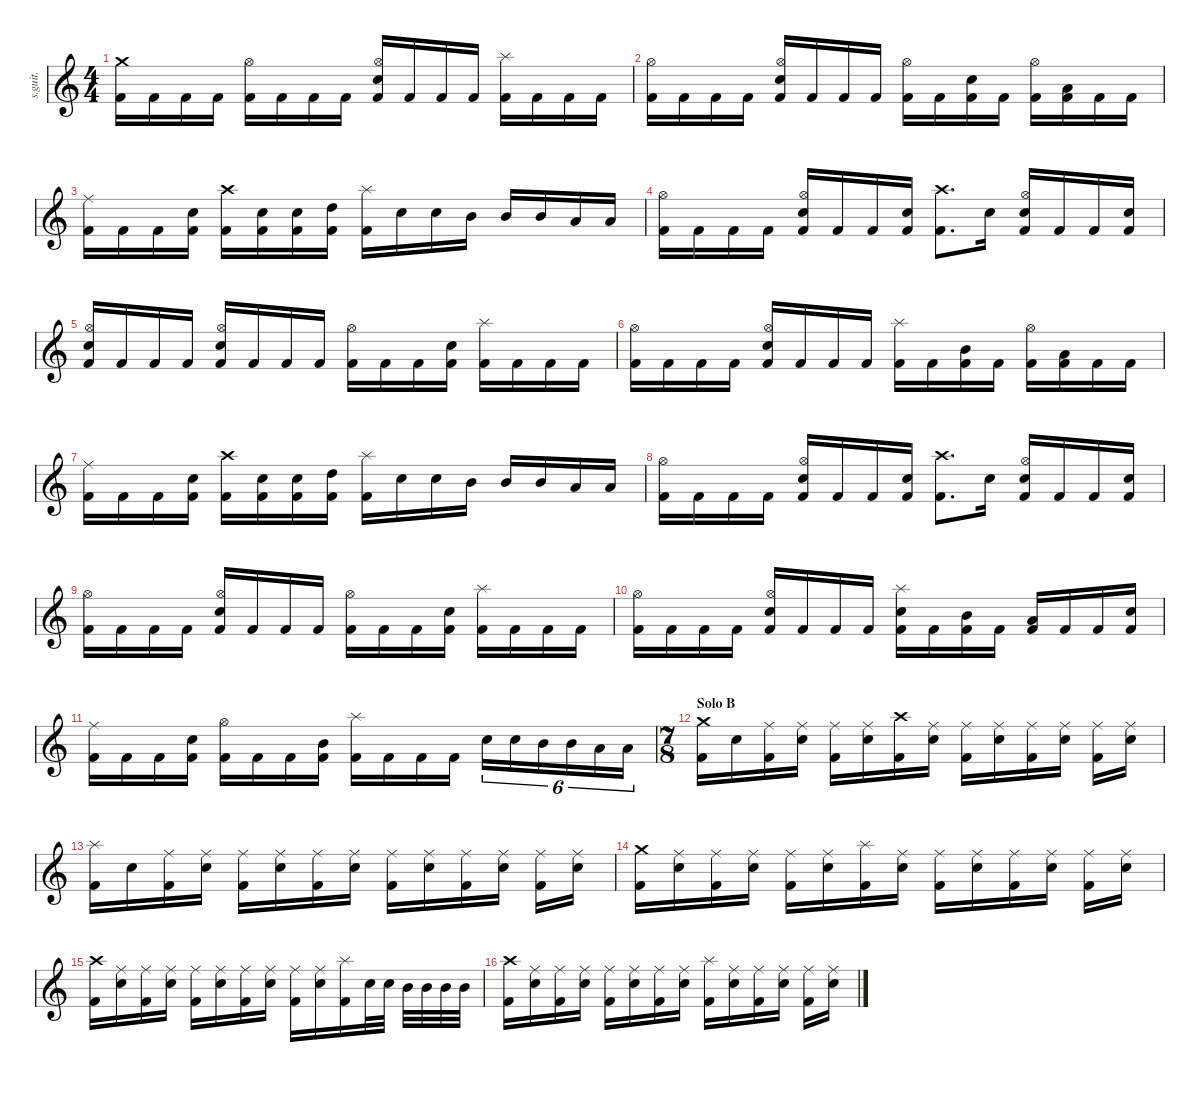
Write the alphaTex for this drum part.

\defaultSystemsLayout 4
\hideDynamics
\bracketExtendMode nobrackets
\track ("Percussion" "s.guit.") {instrument percussion}
\staff {score}
\articulation defaults
\ts (4 4)
\tempo (120 hide)
\clef g2
\ks c
("Crash medium (hit)" "Kick (hit) 2").16{lyrics (0 "") lyrics (1 "") lyrics (2 "") lyrics (3 "") lyrics (4 "") dy f} "Kick (hit) 2".16{lyrics (0 "") lyrics (1 "") lyrics (2 "") lyrics (3 "") lyrics (4 "")} "Kick (hit) 2".16{lyrics (0 "") lyrics (1 "") lyrics (2 "") lyrics (3 "") lyrics (4 "")} "Kick (hit) 2".16{lyrics (0 "") lyrics (1 "") lyrics (2 "") lyrics (3 "") lyrics (4 "")} ("Kick (hit) 2" "Hi-Hat (open)").16{lyrics (0 "") lyrics (1 "") lyrics (2 "") lyrics (3 "") lyrics (4 "")} "Kick (hit) 2".16{lyrics (0 "") lyrics (1 "") lyrics (2 "") lyrics (3 "") lyrics (4 "")} "Kick (hit) 2".16{lyrics (0 "") lyrics (1 "") lyrics (2 "") lyrics (3 "") lyrics (4 "")} "Kick (hit) 2".16{lyrics (0 "") lyrics (1 "") lyrics (2 "") lyrics (3 "") lyrics (4 "")} ("Hi-Hat (open)" "Kick (hit) 2" "Snare (hit) 2").16{lyrics (0 "") lyrics (1 "") lyrics (2 "") lyrics (3 "") lyrics (4 "")} "Kick (hit) 2".16{lyrics (0 "") lyrics (1 "") lyrics (2 "") lyrics (3 "") lyrics (4 "")} "Kick (hit) 2".16{lyrics (0 "") lyrics (1 "") lyrics (2 "") lyrics (3 "") lyrics (4 "")} "Kick (hit) 2".16{lyrics (0 "") lyrics (1 "") lyrics (2 "") lyrics (3 "") lyrics (4 "")} ("Splash (hit)" "Kick (hit) 2").16{lyrics (0 "") lyrics (1 "") lyrics (2 "") lyrics (3 "") lyrics (4 "")} "Kick (hit) 2".16{lyrics (0 "") lyrics (1 "") lyrics (2 "") lyrics (3 "") lyrics (4 "")} "Kick (hit) 2".16{lyrics (0 "") lyrics (1 "") lyrics (2 "") lyrics (3 "") lyrics (4 "")} "Kick (hit) 2".16{lyrics (0 "") lyrics (1 "") lyrics (2 "") lyrics (3 "") lyrics (4 "")} |
("Kick (hit) 2" "Hi-Hat (open)").16{lyrics (0 "") lyrics (1 "") lyrics (2 "") lyrics (3 "") lyrics (4 "")} "Kick (hit) 2".16{lyrics (0 "") lyrics (1 "") lyrics (2 "") lyrics (3 "") lyrics (4 "")} "Kick (hit) 2".16{lyrics (0 "") lyrics (1 "") lyrics (2 "") lyrics (3 "") lyrics (4 "")} "Kick (hit) 2".16{lyrics (0 "") lyrics (1 "") lyrics (2 "") lyrics (3 "") lyrics (4 "")} ("Hi-Hat (open)" "Snare (hit) 2" "Kick (hit) 2").16{lyrics (0 "") lyrics (1 "") lyrics (2 "") lyrics (3 "") lyrics (4 "")} "Kick (hit) 2".16{lyrics (0 "") lyrics (1 "") lyrics (2 "") lyrics (3 "") lyrics (4 "")} "Kick (hit) 2".16{lyrics (0 "") lyrics (1 "") lyrics (2 "") lyrics (3 "") lyrics (4 "")} "Kick (hit) 2".16{lyrics (0 "") lyrics (1 "") lyrics (2 "") lyrics (3 "") lyrics (4 "")} ("Hi-Hat (open)" "Kick (hit) 2").16{lyrics (0 "") lyrics (1 "") lyrics (2 "") lyrics (3 "") lyrics (4 "")} "Kick (hit) 2".16{lyrics (0 "") lyrics (1 "") lyrics (2 "") lyrics (3 "") lyrics (4 "")} ("Snare (hit) 2" "Kick (hit) 2").16{lyrics (0 "") lyrics (1 "") lyrics (2 "") lyrics (3 "") lyrics (4 "")} "Kick (hit) 2".16{lyrics (0 "") lyrics (1 "") lyrics (2 "") lyrics (3 "") lyrics (4 "")} ("Hi-Hat (open)" "Kick (hit) 2").16{lyrics (0 "") lyrics (1 "") lyrics (2 "") lyrics (3 "") lyrics (4 "")} ("Low Floor Tom (hit)" "Kick (hit) 2").16{lyrics (0 "") lyrics (1 "") lyrics (2 "") lyrics (3 "") lyrics (4 "")} "Kick (hit) 2".16{lyrics (0 "") lyrics (1 "") lyrics (2 "") lyrics (3 "") lyrics (4 "")} "Kick (hit) 2".16{lyrics (0 "") lyrics (1 "") lyrics (2 "") lyrics (3 "") lyrics (4 "")} |
("Ride (middle)" "Kick (hit) 2").16{lyrics (0 "") lyrics (1 "") lyrics (2 "") lyrics (3 "") lyrics (4 "")} "Kick (hit) 2".16{lyrics (0 "") lyrics (1 "") lyrics (2 "") lyrics (3 "") lyrics (4 "")} "Kick (hit) 2".16{lyrics (0 "") lyrics (1 "") lyrics (2 "") lyrics (3 "") lyrics (4 "")} ("Snare (hit) 2" "Kick (hit) 2").16{lyrics (0 "") lyrics (1 "") lyrics (2 "") lyrics (3 "") lyrics (4 "")} ("Kick (hit) 2" "Crash high (hit)").16{lyrics (0 "") lyrics (1 "") lyrics (2 "") lyrics (3 "") lyrics (4 "")} ("Snare (hit) 2" "Kick (hit) 2").16{lyrics (0 "") lyrics (1 "") lyrics (2 "") lyrics (3 "") lyrics (4 "")} ("Snare (hit) 2" "Kick (hit) 2").16{lyrics (0 "") lyrics (1 "") lyrics (2 "") lyrics (3 "") lyrics (4 "")} ("High Tom (hit)" "Kick (hit) 2").16{lyrics (0 "") lyrics (1 "") lyrics (2 "") lyrics (3 "") lyrics (4 "")} ("Splash (hit)" "Kick (hit) 2").16{lyrics (0 "") lyrics (1 "") lyrics (2 "") lyrics (3 "") lyrics (4 "")} "Snare (hit) 2".16{lyrics (0 "") lyrics (1 "") lyrics (2 "") lyrics (3 "") lyrics (4 "")} "Snare (hit) 2".16{lyrics (0 "") lyrics (1 "") lyrics (2 "") lyrics (3 "") lyrics (4 "") dy ff} "Mid Tom (hit)".16{lyrics (0 "") lyrics (1 "") lyrics (2 "") lyrics (3 "") lyrics (4 "")} "Mid Tom (hit)".16{lyrics (0 "") lyrics (1 "") lyrics (2 "") lyrics (3 "") lyrics (4 "") dy f} "Mid Tom (hit)".16{lyrics (0 "") lyrics (1 "") lyrics (2 "") lyrics (3 "") lyrics (4 "")} "Low Tom (hit)".16{lyrics (0 "") lyrics (1 "") lyrics (2 "") lyrics (3 "") lyrics (4 "") dy ff} "Low Tom (hit)".16{lyrics (0 "") lyrics (1 "") lyrics (2 "") lyrics (3 "") lyrics (4 "")} |
("Kick (hit) 2" "Hi-Hat (open)").16{lyrics (0 "") lyrics (1 "") lyrics (2 "") lyrics (3 "") lyrics (4 "") dy f} "Kick (hit) 2".16{lyrics (0 "") lyrics (1 "") lyrics (2 "") lyrics (3 "") lyrics (4 "")} "Kick (hit) 2".16{lyrics (0 "") lyrics (1 "") lyrics (2 "") lyrics (3 "") lyrics (4 "")} "Kick (hit) 2".16{lyrics (0 "") lyrics (1 "") lyrics (2 "") lyrics (3 "") lyrics (4 "")} ("Snare (hit) 2" "Kick (hit) 2" "Hi-Hat (open)").16{lyrics (0 "") lyrics (1 "") lyrics (2 "") lyrics (3 "") lyrics (4 "")} "Kick (hit) 2".16{lyrics (0 "") lyrics (1 "") lyrics (2 "") lyrics (3 "") lyrics (4 "")} "Kick (hit) 2".16{lyrics (0 "") lyrics (1 "") lyrics (2 "") lyrics (3 "") lyrics (4 "")} ("Snare (hit) 2" "Kick (hit) 2").16{lyrics (0 "") lyrics (1 "") lyrics (2 "") lyrics (3 "") lyrics (4 "")} ("Crash high (hit)" "Kick (hit) 2").8{d lyrics (0 "") lyrics (1 "") lyrics (2 "") lyrics (3 "") lyrics (4 "")} "Snare (hit) 2".16{lyrics (0 "") lyrics (1 "") lyrics (2 "") lyrics (3 "") lyrics (4 "")} ("Snare (hit) 2" "Kick (hit) 2" "Hi-Hat (open)").16{lyrics (0 "") lyrics (1 "") lyrics (2 "") lyrics (3 "") lyrics (4 "")} "Kick (hit) 2".16{lyrics (0 "") lyrics (1 "") lyrics (2 "") lyrics (3 "") lyrics (4 "")} "Kick (hit) 2".16{lyrics (0 "") lyrics (1 "") lyrics (2 "") lyrics (3 "") lyrics (4 "")} ("Snare (hit) 2" "Kick (hit) 2").16{lyrics (0 "") lyrics (1 "") lyrics (2 "") lyrics (3 "") lyrics (4 "")} |
("Snare (hit) 2" "Kick (hit) 2" "Hi-Hat (open)").16{lyrics (0 "") lyrics (1 "") lyrics (2 "") lyrics (3 "") lyrics (4 "")} "Kick (hit) 2".16{lyrics (0 "") lyrics (1 "") lyrics (2 "") lyrics (3 "") lyrics (4 "")} "Kick (hit) 2".16{lyrics (0 "") lyrics (1 "") lyrics (2 "") lyrics (3 "") lyrics (4 "")} "Kick (hit) 2".16{lyrics (0 "") lyrics (1 "") lyrics (2 "") lyrics (3 "") lyrics (4 "")} ("Snare (hit) 2" "Kick (hit) 2" "Hi-Hat (open)").16{lyrics (0 "") lyrics (1 "") lyrics (2 "") lyrics (3 "") lyrics (4 "")} "Kick (hit) 2".16{lyrics (0 "") lyrics (1 "") lyrics (2 "") lyrics (3 "") lyrics (4 "")} "Kick (hit) 2".16{lyrics (0 "") lyrics (1 "") lyrics (2 "") lyrics (3 "") lyrics (4 "")} "Kick (hit) 2".16{lyrics (0 "") lyrics (1 "") lyrics (2 "") lyrics (3 "") lyrics (4 "")} ("Hi-Hat (open)" "Kick (hit) 2").16{lyrics (0 "") lyrics (1 "") lyrics (2 "") lyrics (3 "") lyrics (4 "")} "Kick (hit) 2".16{lyrics (0 "") lyrics (1 "") lyrics (2 "") lyrics (3 "") lyrics (4 "")} "Kick (hit) 2".16{lyrics (0 "") lyrics (1 "") lyrics (2 "") lyrics (3 "") lyrics (4 "")} ("Snare (hit) 2" "Kick (hit) 2").16{lyrics (0 "") lyrics (1 "") lyrics (2 "") lyrics (3 "") lyrics (4 "")} ("Splash (hit)" "Kick (hit) 2").16{lyrics (0 "") lyrics (1 "") lyrics (2 "") lyrics (3 "") lyrics (4 "")} "Kick (hit) 2".16{lyrics (0 "") lyrics (1 "") lyrics (2 "") lyrics (3 "") lyrics (4 "")} "Kick (hit) 2".16{lyrics (0 "") lyrics (1 "") lyrics (2 "") lyrics (3 "") lyrics (4 "")} "Kick (hit) 2".16{lyrics (0 "") lyrics (1 "") lyrics (2 "") lyrics (3 "") lyrics (4 "")} |
("Kick (hit) 2" "Hi-Hat (open)").16{lyrics (0 "") lyrics (1 "") lyrics (2 "") lyrics (3 "") lyrics (4 "")} "Kick (hit) 2".16{lyrics (0 "") lyrics (1 "") lyrics (2 "") lyrics (3 "") lyrics (4 "")} "Kick (hit) 2".16{lyrics (0 "") lyrics (1 "") lyrics (2 "") lyrics (3 "") lyrics (4 "")} "Kick (hit) 2".16{lyrics (0 "") lyrics (1 "") lyrics (2 "") lyrics (3 "") lyrics (4 "")} ("Hi-Hat (open)" "Snare (hit) 2" "Kick (hit) 2").16{lyrics (0 "") lyrics (1 "") lyrics (2 "") lyrics (3 "") lyrics (4 "")} "Kick (hit) 2".16{lyrics (0 "") lyrics (1 "") lyrics (2 "") lyrics (3 "") lyrics (4 "")} "Kick (hit) 2".16{lyrics (0 "") lyrics (1 "") lyrics (2 "") lyrics (3 "") lyrics (4 "")} "Kick (hit) 2".16{lyrics (0 "") lyrics (1 "") lyrics (2 "") lyrics (3 "") lyrics (4 "")} ("Splash (hit)" "Kick (hit) 2").16{lyrics (0 "") lyrics (1 "") lyrics (2 "") lyrics (3 "") lyrics (4 "")} "Kick (hit) 2".16{lyrics (0 "") lyrics (1 "") lyrics (2 "") lyrics (3 "") lyrics (4 "")} ("Mid Tom (hit)" "Kick (hit) 2").16{lyrics (0 "") lyrics (1 "") lyrics (2 "") lyrics (3 "") lyrics (4 "")} "Kick (hit) 2".16{lyrics (0 "") lyrics (1 "") lyrics (2 "") lyrics (3 "") lyrics (4 "")} ("Hi-Hat (open)" "Kick (hit) 2").16{lyrics (0 "") lyrics (1 "") lyrics (2 "") lyrics (3 "") lyrics (4 "")} ("Low Floor Tom (hit)" "Kick (hit) 2").16{lyrics (0 "") lyrics (1 "") lyrics (2 "") lyrics (3 "") lyrics (4 "")} "Kick (hit) 2".16{lyrics (0 "") lyrics (1 "") lyrics (2 "") lyrics (3 "") lyrics (4 "")} "Kick (hit) 2".16{lyrics (0 "") lyrics (1 "") lyrics (2 "") lyrics (3 "") lyrics (4 "")} |
("Ride (middle)" "Kick (hit) 2").16{lyrics (0 "") lyrics (1 "") lyrics (2 "") lyrics (3 "") lyrics (4 "")} "Kick (hit) 2".16{lyrics (0 "") lyrics (1 "") lyrics (2 "") lyrics (3 "") lyrics (4 "")} "Kick (hit) 2".16{lyrics (0 "") lyrics (1 "") lyrics (2 "") lyrics (3 "") lyrics (4 "")} ("Snare (hit) 2" "Kick (hit) 2").16{lyrics (0 "") lyrics (1 "") lyrics (2 "") lyrics (3 "") lyrics (4 "")} ("Kick (hit) 2" "Crash high (hit)").16{lyrics (0 "") lyrics (1 "") lyrics (2 "") lyrics (3 "") lyrics (4 "")} ("Snare (hit) 2" "Kick (hit) 2").16{lyrics (0 "") lyrics (1 "") lyrics (2 "") lyrics (3 "") lyrics (4 "")} ("Snare (hit) 2" "Kick (hit) 2").16{lyrics (0 "") lyrics (1 "") lyrics (2 "") lyrics (3 "") lyrics (4 "")} ("High Tom (hit)" "Kick (hit) 2").16{lyrics (0 "") lyrics (1 "") lyrics (2 "") lyrics (3 "") lyrics (4 "")} ("Splash (hit)" "Kick (hit) 2").16{lyrics (0 "") lyrics (1 "") lyrics (2 "") lyrics (3 "") lyrics (4 "")} "Snare (hit) 2".16{lyrics (0 "") lyrics (1 "") lyrics (2 "") lyrics (3 "") lyrics (4 "")} "Snare (hit) 2".16{lyrics (0 "") lyrics (1 "") lyrics (2 "") lyrics (3 "") lyrics (4 "") dy ff} "Mid Tom (hit)".16{lyrics (0 "") lyrics (1 "") lyrics (2 "") lyrics (3 "") lyrics (4 "")} "Mid Tom (hit)".16{lyrics (0 "") lyrics (1 "") lyrics (2 "") lyrics (3 "") lyrics (4 "") dy f} "Mid Tom (hit)".16{lyrics (0 "") lyrics (1 "") lyrics (2 "") lyrics (3 "") lyrics (4 "")} "Low Tom (hit)".16{lyrics (0 "") lyrics (1 "") lyrics (2 "") lyrics (3 "") lyrics (4 "") dy ff} "Low Tom (hit)".16{lyrics (0 "") lyrics (1 "") lyrics (2 "") lyrics (3 "") lyrics (4 "")} |
("Kick (hit) 2" "Hi-Hat (open)").16{lyrics (0 "") lyrics (1 "") lyrics (2 "") lyrics (3 "") lyrics (4 "") dy f} "Kick (hit) 2".16{lyrics (0 "") lyrics (1 "") lyrics (2 "") lyrics (3 "") lyrics (4 "")} "Kick (hit) 2".16{lyrics (0 "") lyrics (1 "") lyrics (2 "") lyrics (3 "") lyrics (4 "")} "Kick (hit) 2".16{lyrics (0 "") lyrics (1 "") lyrics (2 "") lyrics (3 "") lyrics (4 "")} ("Snare (hit) 2" "Kick (hit) 2" "Hi-Hat (open)").16{lyrics (0 "") lyrics (1 "") lyrics (2 "") lyrics (3 "") lyrics (4 "")} "Kick (hit) 2".16{lyrics (0 "") lyrics (1 "") lyrics (2 "") lyrics (3 "") lyrics (4 "")} "Kick (hit) 2".16{lyrics (0 "") lyrics (1 "") lyrics (2 "") lyrics (3 "") lyrics (4 "")} ("Snare (hit) 2" "Kick (hit) 2").16{lyrics (0 "") lyrics (1 "") lyrics (2 "") lyrics (3 "") lyrics (4 "")} ("Crash high (hit)" "Kick (hit) 2").8{d lyrics (0 "") lyrics (1 "") lyrics (2 "") lyrics (3 "") lyrics (4 "")} "Snare (hit) 2".16{lyrics (0 "") lyrics (1 "") lyrics (2 "") lyrics (3 "") lyrics (4 "")} ("Snare (hit) 2" "Kick (hit) 2" "Hi-Hat (open)").16{lyrics (0 "") lyrics (1 "") lyrics (2 "") lyrics (3 "") lyrics (4 "")} "Kick (hit) 2".16{lyrics (0 "") lyrics (1 "") lyrics (2 "") lyrics (3 "") lyrics (4 "")} "Kick (hit) 2".16{lyrics (0 "") lyrics (1 "") lyrics (2 "") lyrics (3 "") lyrics (4 "")} ("Snare (hit) 2" "Kick (hit) 2").16{lyrics (0 "") lyrics (1 "") lyrics (2 "") lyrics (3 "") lyrics (4 "")} |
("Kick (hit) 2" "Hi-Hat (open)").16{lyrics (0 "") lyrics (1 "") lyrics (2 "") lyrics (3 "") lyrics (4 "")} "Kick (hit) 2".16{lyrics (0 "") lyrics (1 "") lyrics (2 "") lyrics (3 "") lyrics (4 "")} "Kick (hit) 2".16{lyrics (0 "") lyrics (1 "") lyrics (2 "") lyrics (3 "") lyrics (4 "")} "Kick (hit) 2".16{lyrics (0 "") lyrics (1 "") lyrics (2 "") lyrics (3 "") lyrics (4 "")} ("Snare (hit) 2" "Kick (hit) 2" "Hi-Hat (open)").16{lyrics (0 "") lyrics (1 "") lyrics (2 "") lyrics (3 "") lyrics (4 "")} "Kick (hit) 2".16{lyrics (0 "") lyrics (1 "") lyrics (2 "") lyrics (3 "") lyrics (4 "")} "Kick (hit) 2".16{lyrics (0 "") lyrics (1 "") lyrics (2 "") lyrics (3 "") lyrics (4 "")} "Kick (hit) 2".16{lyrics (0 "") lyrics (1 "") lyrics (2 "") lyrics (3 "") lyrics (4 "")} ("Hi-Hat (open)" "Kick (hit) 2").16{lyrics (0 "") lyrics (1 "") lyrics (2 "") lyrics (3 "") lyrics (4 "")} "Kick (hit) 2".16{lyrics (0 "") lyrics (1 "") lyrics (2 "") lyrics (3 "") lyrics (4 "")} "Kick (hit) 2".16{lyrics (0 "") lyrics (1 "") lyrics (2 "") lyrics (3 "") lyrics (4 "")} ("Snare (hit) 2" "Kick (hit) 2").16{lyrics (0 "") lyrics (1 "") lyrics (2 "") lyrics (3 "") lyrics (4 "")} ("Splash (hit)" "Kick (hit) 2").16{lyrics (0 "") lyrics (1 "") lyrics (2 "") lyrics (3 "") lyrics (4 "")} "Kick (hit) 2".16{lyrics (0 "") lyrics (1 "") lyrics (2 "") lyrics (3 "") lyrics (4 "")} "Kick (hit) 2".16{lyrics (0 "") lyrics (1 "") lyrics (2 "") lyrics (3 "") lyrics (4 "")} "Kick (hit) 2".16{lyrics (0 "") lyrics (1 "") lyrics (2 "") lyrics (3 "") lyrics (4 "")} |
("Kick (hit) 2" "Hi-Hat (open)").16{lyrics (0 "") lyrics (1 "") lyrics (2 "") lyrics (3 "") lyrics (4 "")} "Kick (hit) 2".16{lyrics (0 "") lyrics (1 "") lyrics (2 "") lyrics (3 "") lyrics (4 "")} "Kick (hit) 2".16{lyrics (0 "") lyrics (1 "") lyrics (2 "") lyrics (3 "") lyrics (4 "")} "Kick (hit) 2".16{lyrics (0 "") lyrics (1 "") lyrics (2 "") lyrics (3 "") lyrics (4 "")} ("Hi-Hat (open)" "Snare (hit) 2" "Kick (hit) 2").16{lyrics (0 "") lyrics (1 "") lyrics (2 "") lyrics (3 "") lyrics (4 "")} "Kick (hit) 2".16{lyrics (0 "") lyrics (1 "") lyrics (2 "") lyrics (3 "") lyrics (4 "")} "Kick (hit) 2".16{lyrics (0 "") lyrics (1 "") lyrics (2 "") lyrics (3 "") lyrics (4 "")} "Kick (hit) 2".16{lyrics (0 "") lyrics (1 "") lyrics (2 "") lyrics (3 "") lyrics (4 "")} ("Splash (hit)" "Snare (hit) 2" "Kick (hit) 2").16{lyrics (0 "") lyrics (1 "") lyrics (2 "") lyrics (3 "") lyrics (4 "")} "Kick (hit) 2".16{lyrics (0 "") lyrics (1 "") lyrics (2 "") lyrics (3 "") lyrics (4 "")} ("Mid Tom (hit)" "Kick (hit) 2").16{lyrics (0 "") lyrics (1 "") lyrics (2 "") lyrics (3 "") lyrics (4 "")} "Kick (hit) 2".16{lyrics (0 "") lyrics (1 "") lyrics (2 "") lyrics (3 "") lyrics (4 "")} ("Low Floor Tom (hit)" "Kick (hit) 2").16{lyrics (0 "") lyrics (1 "") lyrics (2 "") lyrics (3 "") lyrics (4 "")} "Kick (hit) 2".16{lyrics (0 "") lyrics (1 "") lyrics (2 "") lyrics (3 "") lyrics (4 "")} "Kick (hit) 2".16{lyrics (0 "") lyrics (1 "") lyrics (2 "") lyrics (3 "") lyrics (4 "")} ("Snare (hit) 2" "Kick (hit) 2").16{lyrics (0 "") lyrics (1 "") lyrics (2 "") lyrics (3 "") lyrics (4 "")} |
("Ride (middle)" "Kick (hit) 2").16{lyrics (0 "") lyrics (1 "") lyrics (2 "") lyrics (3 "") lyrics (4 "")} "Kick (hit) 2".16{lyrics (0 "") lyrics (1 "") lyrics (2 "") lyrics (3 "") lyrics (4 "")} "Kick (hit) 2".16{lyrics (0 "") lyrics (1 "") lyrics (2 "") lyrics (3 "") lyrics (4 "")} ("Snare (hit) 2" "Kick (hit) 2").16{lyrics (0 "") lyrics (1 "") lyrics (2 "") lyrics (3 "") lyrics (4 "")} ("Hi-Hat (open)" "Kick (hit) 2").16{lyrics (0 "") lyrics (1 "") lyrics (2 "") lyrics (3 "") lyrics (4 "")} "Kick (hit) 2".16{lyrics (0 "") lyrics (1 "") lyrics (2 "") lyrics (3 "") lyrics (4 "")} "Kick (hit) 2".16{lyrics (0 "") lyrics (1 "") lyrics (2 "") lyrics (3 "") lyrics (4 "")} ("Mid Tom (hit)" "Kick (hit) 2").16{lyrics (0 "") lyrics (1 "") lyrics (2 "") lyrics (3 "") lyrics (4 "")} ("Splash (hit)" "Kick (hit) 2").16{lyrics (0 "") lyrics (1 "") lyrics (2 "") lyrics (3 "") lyrics (4 "")} "Kick (hit) 2".16{lyrics (0 "") lyrics (1 "") lyrics (2 "") lyrics (3 "") lyrics (4 "")} "Kick (hit) 2".16{lyrics (0 "") lyrics (1 "") lyrics (2 "") lyrics (3 "") lyrics (4 "")} "Kick (hit) 2".16{lyrics (0 "") lyrics (1 "") lyrics (2 "") lyrics (3 "") lyrics (4 "")} "Snare (hit) 2".16{tu (6 4) lyrics (0 "") lyrics (1 "") lyrics (2 "") lyrics (3 "") lyrics (4 "")} "Snare (hit) 2".16{tu (6 4) lyrics (0 "") lyrics (1 "") lyrics (2 "") lyrics (3 "") lyrics (4 "")} "Mid Tom (hit)".16{tu (6 4) lyrics (0 "") lyrics (1 "") lyrics (2 "") lyrics (3 "") lyrics (4 "")} "Mid Tom (hit)".16{tu (6 4) lyrics (0 "") lyrics (1 "") lyrics (2 "") lyrics (3 "") lyrics (4 "")} "Low Floor Tom (hit)".16{tu (6 4) lyrics (0 "") lyrics (1 "") lyrics (2 "") lyrics (3 "") lyrics (4 "")} "Low Floor Tom (hit)".16{tu (6 4) lyrics (0 "") lyrics (1 "") lyrics (2 "") lyrics (3 "") lyrics (4 "")} |
\ts (7 8)
\beaming (8 2 2 2 2)
\section ("" "Solo B")
("Crash medium (hit)" "Kick (hit) 2").16{lyrics (0 "") lyrics (1 "") lyrics (2 "") lyrics (3 "") lyrics (4 "")} "Snare (hit) 2".16{lyrics (0 "") lyrics (1 "") lyrics (2 "") lyrics (3 "") lyrics (4 "")} ("Ride (middle)" "Kick (hit) 2").16{lyrics (0 "") lyrics (1 "") lyrics (2 "") lyrics (3 "") lyrics (4 "")} ("Snare (hit) 2" "Ride (middle)").16{lyrics (0 "") lyrics (1 "") lyrics (2 "") lyrics (3 "") lyrics (4 "")} ("Ride (middle)" "Kick (hit) 2").16{lyrics (0 "") lyrics (1 "") lyrics (2 "") lyrics (3 "") lyrics (4 "")} ("Ride (middle)" "Snare (hit) 2").16{lyrics (0 "") lyrics (1 "") lyrics (2 "") lyrics (3 "") lyrics (4 "")} ("Crash high (hit)" "Kick (hit) 2").16{lyrics (0 "") lyrics (1 "") lyrics (2 "") lyrics (3 "") lyrics (4 "")} ("Ride (middle)" "Snare (hit) 2").16{lyrics (0 "") lyrics (1 "") lyrics (2 "") lyrics (3 "") lyrics (4 "")} ("Ride (middle)" "Kick (hit) 2").16{lyrics (0 "") lyrics (1 "") lyrics (2 "") lyrics (3 "") lyrics (4 "")} ("Ride (middle)" "Snare (hit) 2").16{lyrics (0 "") lyrics (1 "") lyrics (2 "") lyrics (3 "") lyrics (4 "")} ("Ride (middle)" "Kick (hit) 2").16{lyrics (0 "") lyrics (1 "") lyrics (2 "") lyrics (3 "") lyrics (4 "")} ("Ride (middle)" "Snare (hit) 2").16{lyrics (0 "") lyrics (1 "") lyrics (2 "") lyrics (3 "") lyrics (4 "")} ("Ride (middle)" "Kick (hit) 2").16{lyrics (0 "") lyrics (1 "") lyrics (2 "") lyrics (3 "") lyrics (4 "")} ("Ride (middle)" "Snare (hit) 2").16{lyrics (0 "") lyrics (1 "") lyrics (2 "") lyrics (3 "") lyrics (4 "")} |
("Splash (hit)" "Kick (hit) 2").16{lyrics (0 "") lyrics (1 "") lyrics (2 "") lyrics (3 "") lyrics (4 "")} "Snare (hit) 2".16{lyrics (0 "") lyrics (1 "") lyrics (2 "") lyrics (3 "") lyrics (4 "")} ("Ride (middle)" "Kick (hit) 2").16{lyrics (0 "") lyrics (1 "") lyrics (2 "") lyrics (3 "") lyrics (4 "")} ("Snare (hit) 2" "Ride (middle)").16{lyrics (0 "") lyrics (1 "") lyrics (2 "") lyrics (3 "") lyrics (4 "")} ("Ride (middle)" "Kick (hit) 2").16{lyrics (0 "") lyrics (1 "") lyrics (2 "") lyrics (3 "") lyrics (4 "")} ("Ride (middle)" "Snare (hit) 2").16{lyrics (0 "") lyrics (1 "") lyrics (2 "") lyrics (3 "") lyrics (4 "")} ("Ride (middle)" "Kick (hit) 2").16{lyrics (0 "") lyrics (1 "") lyrics (2 "") lyrics (3 "") lyrics (4 "")} ("Ride (middle)" "Snare (hit) 2").16{lyrics (0 "") lyrics (1 "") lyrics (2 "") lyrics (3 "") lyrics (4 "")} ("Ride (middle)" "Kick (hit) 2").16{lyrics (0 "") lyrics (1 "") lyrics (2 "") lyrics (3 "") lyrics (4 "")} ("Ride (middle)" "Snare (hit) 2").16{lyrics (0 "") lyrics (1 "") lyrics (2 "") lyrics (3 "") lyrics (4 "")} ("Ride (middle)" "Kick (hit) 2").16{lyrics (0 "") lyrics (1 "") lyrics (2 "") lyrics (3 "") lyrics (4 "")} ("Ride (middle)" "Snare (hit) 2").16{lyrics (0 "") lyrics (1 "") lyrics (2 "") lyrics (3 "") lyrics (4 "")} ("Ride (middle)" "Kick (hit) 2").16{lyrics (0 "") lyrics (1 "") lyrics (2 "") lyrics (3 "") lyrics (4 "")} ("Ride (middle)" "Snare (hit) 2").16{lyrics (0 "") lyrics (1 "") lyrics (2 "") lyrics (3 "") lyrics (4 "")} |
("Crash medium (hit)" "Kick (hit) 2").16{lyrics (0 "") lyrics (1 "") lyrics (2 "") lyrics (3 "") lyrics (4 "")} ("Ride (middle)" "Snare (hit) 2").16{lyrics (0 "") lyrics (1 "") lyrics (2 "") lyrics (3 "") lyrics (4 "")} ("Ride (middle)" "Kick (hit) 2").16{lyrics (0 "") lyrics (1 "") lyrics (2 "") lyrics (3 "") lyrics (4 "")} ("Snare (hit) 2" "Ride (middle)").16{lyrics (0 "") lyrics (1 "") lyrics (2 "") lyrics (3 "") lyrics (4 "")} ("Ride (middle)" "Kick (hit) 2").16{lyrics (0 "") lyrics (1 "") lyrics (2 "") lyrics (3 "") lyrics (4 "")} ("Ride (middle)" "Snare (hit) 2").16{lyrics (0 "") lyrics (1 "") lyrics (2 "") lyrics (3 "") lyrics (4 "")} ("Splash (hit)" "Kick (hit) 2").16{lyrics (0 "") lyrics (1 "") lyrics (2 "") lyrics (3 "") lyrics (4 "")} ("Ride (middle)" "Snare (hit) 2").16{lyrics (0 "") lyrics (1 "") lyrics (2 "") lyrics (3 "") lyrics (4 "")} ("Ride (middle)" "Kick (hit) 2").16{lyrics (0 "") lyrics (1 "") lyrics (2 "") lyrics (3 "") lyrics (4 "")} ("Ride (middle)" "Snare (hit) 2").16{lyrics (0 "") lyrics (1 "") lyrics (2 "") lyrics (3 "") lyrics (4 "")} ("Ride (middle)" "Kick (hit) 2").16{lyrics (0 "") lyrics (1 "") lyrics (2 "") lyrics (3 "") lyrics (4 "")} ("Ride (middle)" "Snare (hit) 2").16{lyrics (0 "") lyrics (1 "") lyrics (2 "") lyrics (3 "") lyrics (4 "")} ("Ride (middle)" "Kick (hit) 2").16{lyrics (0 "") lyrics (1 "") lyrics (2 "") lyrics (3 "") lyrics (4 "")} ("Ride (middle)" "Snare (hit) 2").16{lyrics (0 "") lyrics (1 "") lyrics (2 "") lyrics (3 "") lyrics (4 "")} |
("Crash high (hit)" "Kick (hit) 2").16{lyrics (0 "") lyrics (1 "") lyrics (2 "") lyrics (3 "") lyrics (4 "")} ("Ride (middle)" "Snare (hit) 2").16{lyrics (0 "") lyrics (1 "") lyrics (2 "") lyrics (3 "") lyrics (4 "")} ("Ride (middle)" "Kick (hit) 2").16{lyrics (0 "") lyrics (1 "") lyrics (2 "") lyrics (3 "") lyrics (4 "")} ("Snare (hit) 2" "Ride (middle)").16{lyrics (0 "") lyrics (1 "") lyrics (2 "") lyrics (3 "") lyrics (4 "")} ("Ride (middle)" "Kick (hit) 2").16{lyrics (0 "") lyrics (1 "") lyrics (2 "") lyrics (3 "") lyrics (4 "")} ("Ride (middle)" "Snare (hit) 2").16{lyrics (0 "") lyrics (1 "") lyrics (2 "") lyrics (3 "") lyrics (4 "")} ("Ride (middle)" "Kick (hit) 2").16{lyrics (0 "") lyrics (1 "") lyrics (2 "") lyrics (3 "") lyrics (4 "")} ("Ride (middle)" "Snare (hit) 2").16{lyrics (0 "") lyrics (1 "") lyrics (2 "") lyrics (3 "") lyrics (4 "")} ("Ride (middle)" "Kick (hit) 2").16{lyrics (0 "") lyrics (1 "") lyrics (2 "") lyrics (3 "") lyrics (4 "")} ("Ride (middle)" "Snare (hit) 2").16{lyrics (0 "") lyrics (1 "") lyrics (2 "") lyrics (3 "") lyrics (4 "")} ("Splash (hit)" "Kick (hit) 2").16{lyrics (0 "") lyrics (1 "") lyrics (2 "") lyrics (3 "") lyrics (4 "")} "Snare (hit) 2".32{lyrics (0 "") lyrics (1 "") lyrics (2 "") lyrics (3 "") lyrics (4 "")} "Snare (hit) 2".32{lyrics (0 "") lyrics (1 "") lyrics (2 "") lyrics (3 "") lyrics (4 "")} "Mid Tom (hit)".32{lyrics (0 "") lyrics (1 "") lyrics (2 "") lyrics (3 "") lyrics (4 "")} "Mid Tom (hit)".32{lyrics (0 "") lyrics (1 "") lyrics (2 "") lyrics (3 "") lyrics (4 "")} "Mid Tom (hit)".32{lyrics (0 "") lyrics (1 "") lyrics (2 "") lyrics (3 "") lyrics (4 "")} "Mid Tom (hit)".32{lyrics (0 "") lyrics (1 "") lyrics (2 "") lyrics (3 "") lyrics (4 "")} |
("Crash high (hit)" "Kick (hit) 2").16{lyrics (0 "") lyrics (1 "") lyrics (2 "") lyrics (3 "") lyrics (4 "")} ("Ride (middle)" "Snare (hit) 2").16{lyrics (0 "") lyrics (1 "") lyrics (2 "") lyrics (3 "") lyrics (4 "")} ("Ride (middle)" "Kick (hit) 2").16{lyrics (0 "") lyrics (1 "") lyrics (2 "") lyrics (3 "") lyrics (4 "")} ("Snare (hit) 2" "Ride (middle)").16{lyrics (0 "") lyrics (1 "") lyrics (2 "") lyrics (3 "") lyrics (4 "")} ("Ride (middle)" "Kick (hit) 2").16{lyrics (0 "") lyrics (1 "") lyrics (2 "") lyrics (3 "") lyrics (4 "")} ("Ride (middle)" "Snare (hit) 2").16{lyrics (0 "") lyrics (1 "") lyrics (2 "") lyrics (3 "") lyrics (4 "")} ("Ride (middle)" "Kick (hit) 2").16{lyrics (0 "") lyrics (1 "") lyrics (2 "") lyrics (3 "") lyrics (4 "")} ("Ride (middle)" "Snare (hit) 2").16{lyrics (0 "") lyrics (1 "") lyrics (2 "") lyrics (3 "") lyrics (4 "")} ("Splash (hit)" "Kick (hit) 2").16{lyrics (0 "") lyrics (1 "") lyrics (2 "") lyrics (3 "") lyrics (4 "")} ("Ride (middle)" "Snare (hit) 2").16{lyrics (0 "") lyrics (1 "") lyrics (2 "") lyrics (3 "") lyrics (4 "")} ("Ride (middle)" "Kick (hit) 2").16{lyrics (0 "") lyrics (1 "") lyrics (2 "") lyrics (3 "") lyrics (4 "")} ("Ride (middle)" "Snare (hit) 2").16{lyrics (0 "") lyrics (1 "") lyrics (2 "") lyrics (3 "") lyrics (4 "")} ("Ride (middle)" "Kick (hit) 2").16{lyrics (0 "") lyrics (1 "") lyrics (2 "") lyrics (3 "") lyrics (4 "")} ("Ride (middle)" "Snare (hit) 2").16{lyrics (0 "") lyrics (1 "") lyrics (2 "") lyrics (3 "") lyrics (4 "")}
